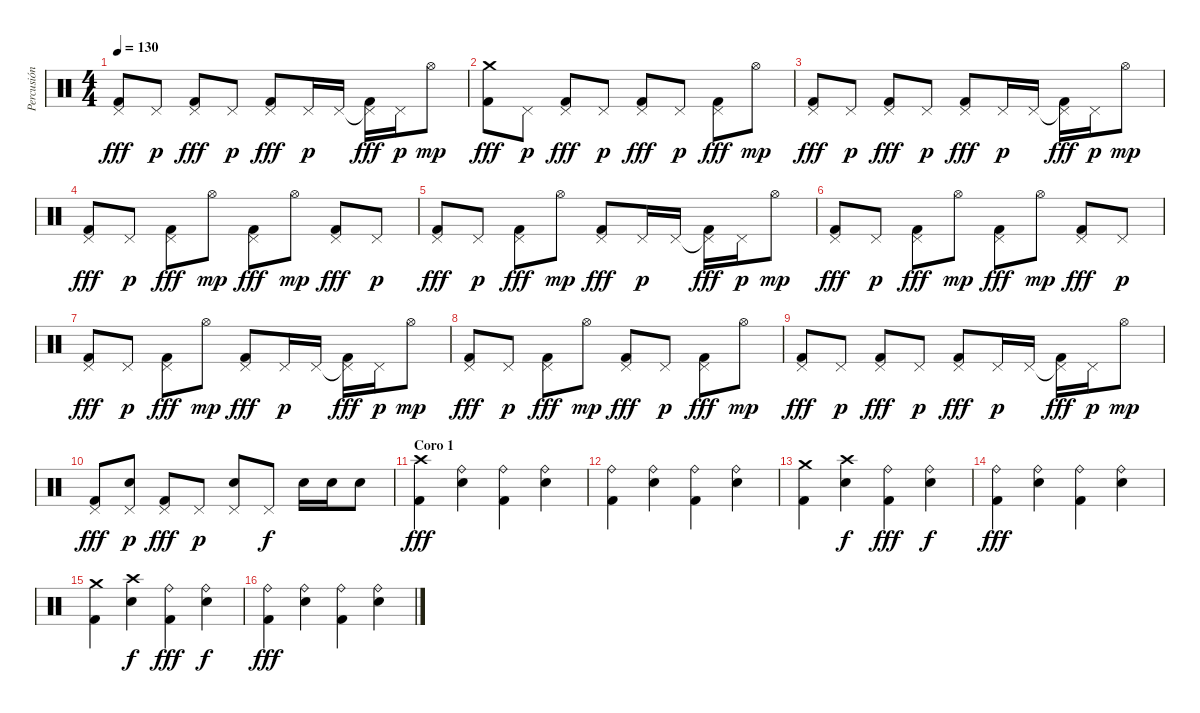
\track ("Percusión" "Percusión") {instrument percussion}
\staff {score}
\articulation defaults
\ts (4 4)
\tempo 130
\clef neutral
\ks c
("Pedal Hi-Hat (hit)" "Kick (hit) 2").8{dy fff} "Pedal Hi-Hat (hit)".8{dy p} ("Pedal Hi-Hat (hit)" "Kick (hit) 2").8{dy fff} "Pedal Hi-Hat (hit)".8{dy p} ("Pedal Hi-Hat (hit)" "Kick (hit) 2").8{dy fff} "Pedal Hi-Hat (hit)".16{dy p} "Pedal Hi-Hat (hit)".16 ("Pedal Hi-Hat (hit)"{t} "Kick (hit) 2").16{dy fff} "Pedal Hi-Hat (hit)".16{dy p} "Hi-Hat (open)".8{dy mp} |
("Crash medium (hit)" "Kick (hit) 2").8{dy fff} "Pedal Hi-Hat (hit)".8{dy p} ("Pedal Hi-Hat (hit)" "Kick (hit) 2").8{dy fff} "Pedal Hi-Hat (hit)".8{dy p} ("Pedal Hi-Hat (hit)" "Kick (hit) 2").8{dy fff} "Pedal Hi-Hat (hit)".8{dy p} ("Pedal Hi-Hat (hit)" "Kick (hit) 2").8{dy fff} "Hi-Hat (open)".8{dy mp} |
("Pedal Hi-Hat (hit)" "Kick (hit) 2").8{dy fff} "Pedal Hi-Hat (hit)".8{dy p} ("Pedal Hi-Hat (hit)" "Kick (hit) 2").8{dy fff} "Pedal Hi-Hat (hit)".8{dy p} ("Pedal Hi-Hat (hit)" "Kick (hit) 2").8{dy fff} "Pedal Hi-Hat (hit)".16{dy p} "Pedal Hi-Hat (hit)".16 ("Pedal Hi-Hat (hit)"{t} "Kick (hit) 2").16{dy fff} "Pedal Hi-Hat (hit)".16{dy p} "Hi-Hat (open)".8{dy mp} |
("Pedal Hi-Hat (hit)" "Kick (hit) 2").8{dy fff} "Pedal Hi-Hat (hit)".8{dy p} ("Pedal Hi-Hat (hit)" "Kick (hit) 2").8{dy fff} "Hi-Hat (open)".8{dy mp} ("Pedal Hi-Hat (hit)" "Kick (hit) 2").8{dy fff} "Hi-Hat (open)".8{dy mp} ("Pedal Hi-Hat (hit)" "Kick (hit) 2").8{dy fff} "Pedal Hi-Hat (hit)".8{dy p} |
("Pedal Hi-Hat (hit)" "Kick (hit) 2").8{dy fff} "Pedal Hi-Hat (hit)".8{dy p} ("Pedal Hi-Hat (hit)" "Kick (hit) 2").8{dy fff} "Hi-Hat (open)".8{dy mp} ("Pedal Hi-Hat (hit)" "Kick (hit) 2").8{dy fff} "Pedal Hi-Hat (hit)".16{dy p} "Pedal Hi-Hat (hit)".16 ("Pedal Hi-Hat (hit)"{t} "Kick (hit) 2").16{dy fff} "Pedal Hi-Hat (hit)".16{dy p} "Hi-Hat (open)".8{dy mp} |
("Pedal Hi-Hat (hit)" "Kick (hit) 2").8{dy fff} "Pedal Hi-Hat (hit)".8{dy p} ("Pedal Hi-Hat (hit)" "Kick (hit) 2").8{dy fff} "Hi-Hat (open)".8{dy mp} ("Pedal Hi-Hat (hit)" "Kick (hit) 2").8{dy fff} "Hi-Hat (open)".8{dy mp} ("Pedal Hi-Hat (hit)" "Kick (hit) 2").8{dy fff} "Pedal Hi-Hat (hit)".8{dy p} |
("Pedal Hi-Hat (hit)" "Kick (hit) 2").8{dy fff} "Pedal Hi-Hat (hit)".8{dy p} ("Pedal Hi-Hat (hit)" "Kick (hit) 2").8{dy fff} "Hi-Hat (open)".8{dy mp} ("Pedal Hi-Hat (hit)" "Kick (hit) 2").8{dy fff} "Pedal Hi-Hat (hit)".16{dy p} "Pedal Hi-Hat (hit)".16 ("Pedal Hi-Hat (hit)"{t} "Kick (hit) 2").16{dy fff} "Pedal Hi-Hat (hit)".16{dy p} "Hi-Hat (open)".8{dy mp} |
("Pedal Hi-Hat (hit)" "Kick (hit) 2").8{dy fff} "Pedal Hi-Hat (hit)".8{dy p} ("Pedal Hi-Hat (hit)" "Kick (hit) 2").8{dy fff} "Hi-Hat (open)".8{dy mp} ("Pedal Hi-Hat (hit)" "Kick (hit) 2").8{dy fff} "Pedal Hi-Hat (hit)".8{dy p} ("Pedal Hi-Hat (hit)" "Kick (hit) 2").8{dy fff} "Hi-Hat (open)".8{dy mp} |
("Pedal Hi-Hat (hit)" "Kick (hit) 2").8{dy fff} "Pedal Hi-Hat (hit)".8{dy p} ("Pedal Hi-Hat (hit)" "Kick (hit) 2").8{dy fff} "Pedal Hi-Hat (hit)".8{dy p} ("Pedal Hi-Hat (hit)" "Kick (hit) 2").8{dy fff} "Pedal Hi-Hat (hit)".16{dy p} "Pedal Hi-Hat (hit)".16 ("Pedal Hi-Hat (hit)"{t} "Kick (hit) 2").16{dy fff} "Pedal Hi-Hat (hit)".16{dy p} "Hi-Hat (open)".8{dy mp} |
("Pedal Hi-Hat (hit)" "Kick (hit) 2").8{dy fff} ("Pedal Hi-Hat (hit)" "Snare (hit) 2").8{dy p} ("Pedal Hi-Hat (hit)" "Kick (hit) 2").8{dy fff} "Pedal Hi-Hat (hit)".8{dy p} ("Pedal Hi-Hat (hit)" "Snare (hit) 2").8 "Pedal Hi-Hat (hit)".8{dy f} "Snare (hit) 2".16 "Snare (hit) 2".16 "Snare (hit) 2".8 |
\section ("" "Coro 1")
("Crash high (hit)" "Kick (hit) 2").4{dy fff} ("Ride (bell)" "Snare (hit) 2").4 ("Ride (bell)" "Kick (hit) 2").4 ("Ride (bell)" "Snare (hit) 2").4 |
("Ride (bell)" "Kick (hit) 2").4 ("Ride (bell)" "Snare (hit) 2").4 ("Ride (bell)" "Kick (hit) 2").4 ("Ride (bell)" "Snare (hit) 2").4 |
("Crash medium (hit)" "Kick (hit) 2").4 ("Crash high (hit)" "Snare (hit) 2").4{dy f} ("Ride (bell)" "Kick (hit) 2").4{dy fff} ("Ride (bell)" "Snare (hit) 2").4{dy f} |
("Ride (bell)" "Kick (hit) 2").4{dy fff} ("Ride (bell)" "Snare (hit) 2").4 ("Ride (bell)" "Kick (hit) 2").4 ("Ride (bell)" "Snare (hit) 2").4 |
("Crash medium (hit)" "Kick (hit) 2").4 ("Crash high (hit)" "Snare (hit) 2").4{dy f} ("Ride (bell)" "Kick (hit) 2").4{dy fff} ("Ride (bell)" "Snare (hit) 2").4{dy f} |
("Ride (bell)" "Kick (hit) 2").4{dy fff} ("Ride (bell)" "Snare (hit) 2").4 ("Ride (bell)" "Kick (hit) 2").4 ("Ride (bell)" "Snare (hit) 2").4
